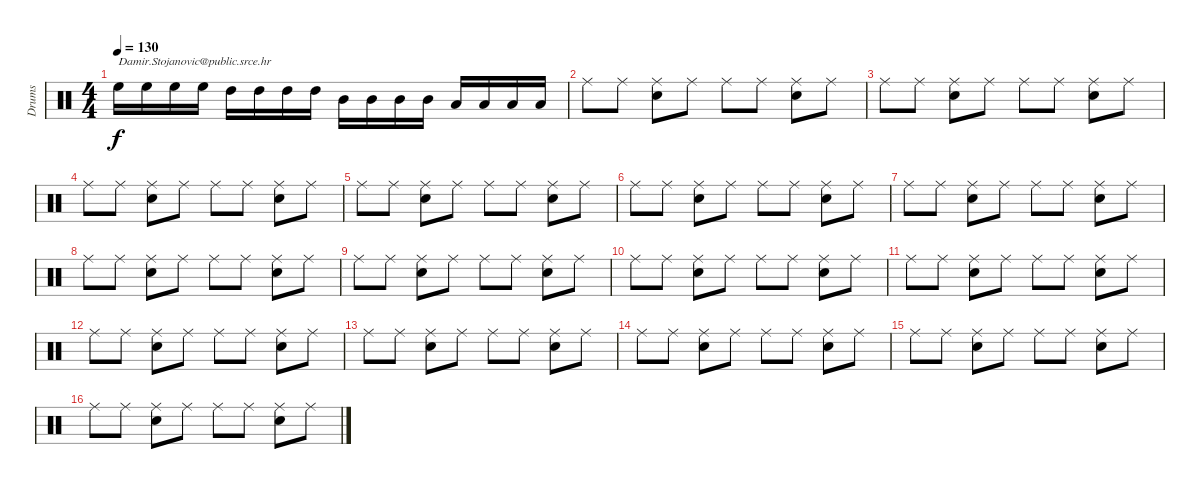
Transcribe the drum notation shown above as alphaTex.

\track ("Drums" "Drums") {instrument percussion}
\staff {score}
\articulation defaults
\ts (4 4)
\tempo 130
\clef neutral
\ks c "High Floor Tom (hit)".16{txt "Damir.Stojanovic@public.srce.hr" dy f} "High Floor Tom (hit)".16 "High Floor Tom (hit)".16 "High Floor Tom (hit)".16 "High Tom (hit)".16 "High Tom (hit)".16 "High Tom (hit)".16 "High Tom (hit)".16 "Mid Tom (hit)".16 "Mid Tom (hit)".16 "Mid Tom (hit)".16 "Mid Tom (hit)".16 "Low Tom (hit)".16 "Low Tom (hit)".16 "Low Tom (hit)".16 "Low Tom (hit)".16
|
"Ride (middle)".8 "Ride (middle)".8 ("Ride (middle)" "Snare (hit) 2").8 "Ride (middle)".8 "Ride (middle)".8 "Ride (middle)".8 ("Ride (middle)" "Snare (hit) 2").8 "Ride (middle)".8 |
"Ride (middle)".8 "Ride (middle)".8 ("Ride (middle)" "Snare (hit) 2").8 "Ride (middle)".8 "Ride (middle)".8 "Ride (middle)".8 ("Ride (middle)" "Snare (hit) 2").8 "Ride (middle)".8 |
"Ride (middle)".8 "Ride (middle)".8 ("Ride (middle)" "Snare (hit) 2").8 "Ride (middle)".8 "Ride (middle)".8 "Ride (middle)".8 ("Ride (middle)" "Snare (hit) 2").8 "Ride (middle)".8 |
"Ride (middle)".8 "Ride (middle)".8 ("Ride (middle)" "Snare (hit) 2").8 "Ride (middle)".8 "Ride (middle)".8 "Ride (middle)".8 ("Ride (middle)" "Snare (hit) 2").8 "Ride (middle)".8 |
"Ride (middle)".8 "Ride (middle)".8 ("Ride (middle)" "Snare (hit) 2").8 "Ride (middle)".8 "Ride (middle)".8 "Ride (middle)".8 ("Ride (middle)" "Snare (hit) 2").8 "Ride (middle)".8 |
"Ride (middle)".8 "Ride (middle)".8 ("Ride (middle)" "Snare (hit) 2").8 "Ride (middle)".8 "Ride (middle)".8 "Ride (middle)".8 ("Ride (middle)" "Snare (hit) 2").8 "Ride (middle)".8 |
"Ride (middle)".8 "Ride (middle)".8 ("Ride (middle)" "Snare (hit) 2").8 "Ride (middle)".8 "Ride (middle)".8 "Ride (middle)".8 ("Ride (middle)" "Snare (hit) 2").8 "Ride (middle)".8 |
"Ride (middle)".8 "Ride (middle)".8 ("Ride (middle)" "Snare (hit) 2").8 "Ride (middle)".8 "Ride (middle)".8 "Ride (middle)".8 ("Ride (middle)" "Snare (hit) 2").8 "Ride (middle)".8 |
"Ride (middle)".8 "Ride (middle)".8 ("Ride (middle)" "Snare (hit) 2").8 "Ride (middle)".8 "Ride (middle)".8 "Ride (middle)".8 ("Ride (middle)" "Snare (hit) 2").8 "Ride (middle)".8 |
"Ride (middle)".8 "Ride (middle)".8 ("Ride (middle)" "Snare (hit) 2").8 "Ride (middle)".8 "Ride (middle)".8 "Ride (middle)".8 ("Ride (middle)" "Snare (hit) 2").8 "Ride (middle)".8 |
"Ride (middle)".8 "Ride (middle)".8 ("Ride (middle)" "Snare (hit) 2").8 "Ride (middle)".8 "Ride (middle)".8 "Ride (middle)".8 ("Ride (middle)" "Snare (hit) 2").8 "Ride (middle)".8 |
"Ride (middle)".8 "Ride (middle)".8 ("Ride (middle)" "Snare (hit) 2").8 "Ride (middle)".8 "Ride (middle)".8 "Ride (middle)".8 ("Ride (middle)" "Snare (hit) 2").8 "Ride (middle)".8 |
"Ride (middle)".8 "Ride (middle)".8 ("Ride (middle)" "Snare (hit) 2").8 "Ride (middle)".8 "Ride (middle)".8 "Ride (middle)".8 ("Ride (middle)" "Snare (hit) 2").8 "Ride (middle)".8 |
"Ride (middle)".8 "Ride (middle)".8 ("Ride (middle)" "Snare (hit) 2").8 "Ride (middle)".8 "Ride (middle)".8 "Ride (middle)".8 ("Ride (middle)" "Snare (hit) 2").8 "Ride (middle)".8 |
"Ride (middle)".8 "Ride (middle)".8 ("Ride (middle)" "Snare (hit) 2").8 "Ride (middle)".8 "Ride (middle)".8 "Ride (middle)".8 ("Ride (middle)" "Snare (hit) 2").8 "Ride (middle)".8
